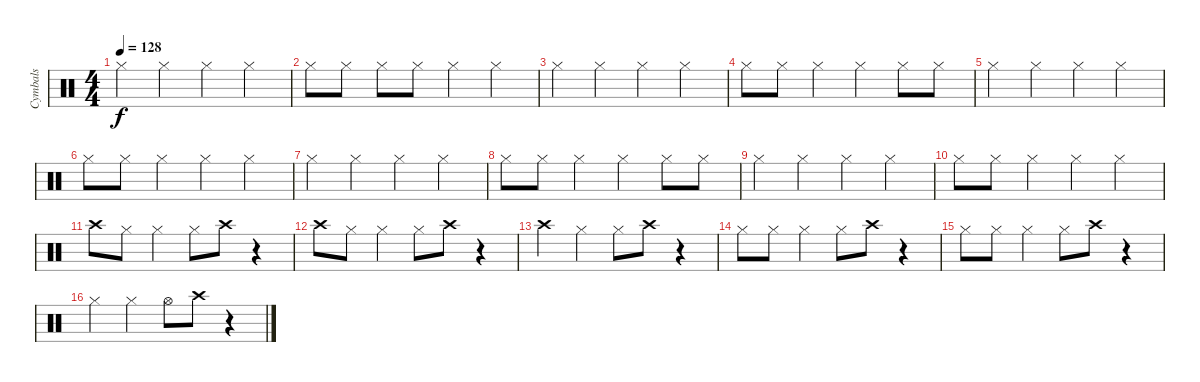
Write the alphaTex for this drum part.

\track ("Cymbals" "Cymbals") {instrument percussion}
\staff {score}
\articulation defaults
\ts (4 4)
\tempo 128
\clef neutral
\ks c "Hi-Hat (closed)".4{dy f} "Hi-Hat (closed)".4 "Hi-Hat (closed)".4 "Hi-Hat (closed)".4
|
"Hi-Hat (closed)".8 "Hi-Hat (closed)".8 "Hi-Hat (closed)".8 "Hi-Hat (closed)".8 "Hi-Hat (closed)".4 "Hi-Hat (closed)".4 |
"Hi-Hat (closed)".4 "Hi-Hat (closed)".4 "Hi-Hat (closed)".4 "Hi-Hat (closed)".4 |
"Hi-Hat (closed)".8 "Hi-Hat (closed)".8 "Hi-Hat (closed)".4 "Hi-Hat (closed)".4 "Hi-Hat (closed)".8 "Hi-Hat (closed)".8 |
"Hi-Hat (closed)".4 "Hi-Hat (closed)".4 "Hi-Hat (closed)".4 "Hi-Hat (closed)".4 |
"Hi-Hat (closed)".8 "Hi-Hat (closed)".8 "Hi-Hat (closed)".4 "Hi-Hat (closed)".4 "Hi-Hat (closed)".4 |
"Hi-Hat (closed)".4 "Hi-Hat (closed)".4 "Hi-Hat (closed)".4 "Hi-Hat (closed)".4 |
"Hi-Hat (closed)".8 "Hi-Hat (closed)".8 "Hi-Hat (closed)".4 "Hi-Hat (closed)".4 "Hi-Hat (closed)".8 "Hi-Hat (closed)".8 |
"Hi-Hat (closed)".4 "Hi-Hat (closed)".4 "Hi-Hat (closed)".4 "Hi-Hat (closed)".4 |
"Hi-Hat (closed)".8 "Hi-Hat (closed)".8 "Hi-Hat (closed)".4 "Hi-Hat (closed)".4 "Hi-Hat (closed)".4 |
"Crash high (hit)".8 "Hi-Hat (closed)".8 "Hi-Hat (closed)".4 "Hi-Hat (closed)".8 "Crash high (hit)".8 r.4 |
"Crash high (hit)".8 "Hi-Hat (closed)".8 "Hi-Hat (closed)".4 "Hi-Hat (closed)".8 "Crash high (hit)".8 r.4 |
"Crash high (hit)".4 "Hi-Hat (closed)".4 "Hi-Hat (closed)".8 "Crash high (hit)".8 r.4 |
"Hi-Hat (closed)".8 "Hi-Hat (closed)".8 "Hi-Hat (closed)".4 "Hi-Hat (closed)".8 "Crash high (hit)".8 r.4 |
"Hi-Hat (closed)".8 "Hi-Hat (closed)".8 "Hi-Hat (closed)".4 "Hi-Hat (closed)".8 "Crash high (hit)".8 r.4 |
"Hi-Hat (closed)".4 "Hi-Hat (closed)".4 "Hi-Hat (open)".8 "Crash high (hit)".8 r.4
